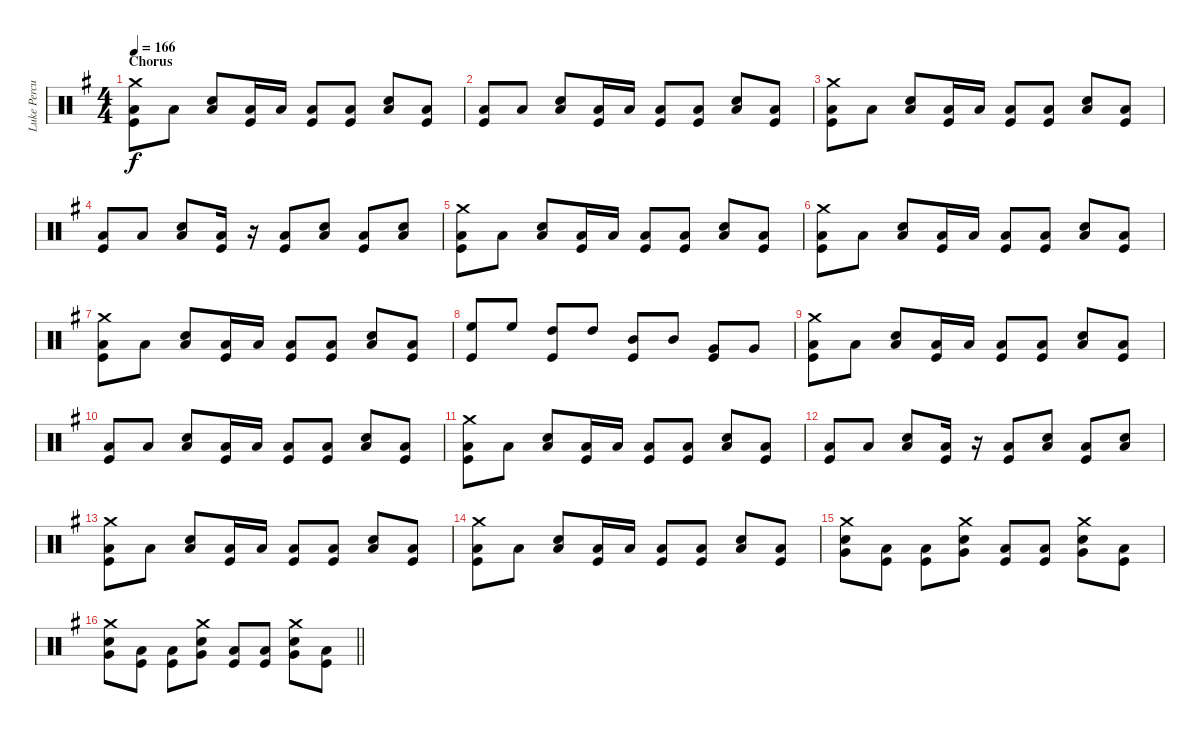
\track ("Luke Percussion" "Luke Percu") {instrument percussion}
\staff {score}
\articulation defaults
\ts (4 4)
\section ("" "Chorus")
\tempo 166
\clef neutral
\ks eminor
("Crash medium (hit)" "Low Floor Tom (hit)" "Kick (hit)").8{dy f} "Low Floor Tom (hit)".8 ("Snare (hit) 2" "Low Floor Tom (hit)").8 ("Low Floor Tom (hit)" "Kick (hit)").16 "Low Floor Tom (hit)".16 ("Low Floor Tom (hit)" "Kick (hit)").8 ("Low Floor Tom (hit)" "Kick (hit)").8 ("Snare (hit) 2" "Low Floor Tom (hit)").8 ("Low Floor Tom (hit)" "Kick (hit)").8 |
("Low Floor Tom (hit)" "Kick (hit)").8 "Low Floor Tom (hit)".8 ("Snare (hit) 2" "Low Floor Tom (hit)").8 ("Low Floor Tom (hit)" "Kick (hit)").16 "Low Floor Tom (hit)".16 ("Low Floor Tom (hit)" "Kick (hit)").8 ("Low Floor Tom (hit)" "Kick (hit)").8 ("Snare (hit) 2" "Low Floor Tom (hit)").8 ("Low Floor Tom (hit)" "Kick (hit)").8 |
("Crash medium (hit)" "Low Floor Tom (hit)" "Kick (hit)").8 "Low Floor Tom (hit)".8 ("Snare (hit) 2" "Low Floor Tom (hit)").8 ("Low Floor Tom (hit)" "Kick (hit)").16 "Low Floor Tom (hit)".16 ("Low Floor Tom (hit)" "Kick (hit)").8 ("Low Floor Tom (hit)" "Kick (hit)").8 ("Snare (hit) 2" "Low Floor Tom (hit)").8 ("Low Floor Tom (hit)" "Kick (hit)").8 |
("Low Floor Tom (hit)" "Kick (hit)").8 "Low Floor Tom (hit)".8 ("Snare (hit) 2" "Low Floor Tom (hit)").8 ("Low Floor Tom (hit)" "Kick (hit)").16 r.16 ("Low Floor Tom (hit)" "Kick (hit)").8 ("Snare (hit) 2" "Low Floor Tom (hit)").8 ("Low Floor Tom (hit)" "Kick (hit)").8 ("Snare (hit) 2" "Low Floor Tom (hit)").8 |
("Crash medium (hit)" "Low Floor Tom (hit)" "Kick (hit)").8 "Low Floor Tom (hit)".8 ("Snare (hit) 2" "Low Floor Tom (hit)").8 ("Low Floor Tom (hit)" "Kick (hit)").16 "Low Floor Tom (hit)".16 ("Low Floor Tom (hit)" "Kick (hit)").8 ("Low Floor Tom (hit)" "Kick (hit)").8 ("Snare (hit) 2" "Low Floor Tom (hit)").8 ("Low Floor Tom (hit)" "Kick (hit)").8 |
("Crash medium (hit)" "Low Floor Tom (hit)" "Kick (hit)").8 "Low Floor Tom (hit)".8 ("Snare (hit) 2" "Low Floor Tom (hit)").8 ("Low Floor Tom (hit)" "Kick (hit)").16 "Low Floor Tom (hit)".16 ("Low Floor Tom (hit)" "Kick (hit)").8 ("Low Floor Tom (hit)" "Kick (hit)").8 ("Snare (hit) 2" "Low Floor Tom (hit)").8 ("Low Floor Tom (hit)" "Kick (hit)").8 |
("Crash medium (hit)" "Low Floor Tom (hit)" "Kick (hit)").8 "Low Floor Tom (hit)".8 ("Snare (hit) 2" "Low Floor Tom (hit)").8 ("Low Floor Tom (hit)" "Kick (hit)").16 "Low Floor Tom (hit)".16 ("Low Floor Tom (hit)" "Kick (hit)").8 ("Low Floor Tom (hit)" "Kick (hit)").8 ("Snare (hit) 2" "Low Floor Tom (hit)").8 ("Low Floor Tom (hit)" "Kick (hit)").8 |
("High Floor Tom (hit)" "Kick (hit)").8 "High Floor Tom (hit)".8 ("High Tom (hit)" "Kick (hit)").8 "High Tom (hit)".8 ("Mid Tom (hit)" "Kick (hit)").8 "Mid Tom (hit)".8 ("Very Low Tom (hit)" "Kick (hit)").8 "Very Low Tom (hit)".8 |
("Crash medium (hit)" "Low Floor Tom (hit)" "Kick (hit)").8 "Low Floor Tom (hit)".8 ("Snare (hit) 2" "Low Floor Tom (hit)").8 ("Low Floor Tom (hit)" "Kick (hit)").16 "Low Floor Tom (hit)".16 ("Low Floor Tom (hit)" "Kick (hit)").8 ("Low Floor Tom (hit)" "Kick (hit)").8 ("Snare (hit) 2" "Low Floor Tom (hit)").8 ("Low Floor Tom (hit)" "Kick (hit)").8 |
("Low Floor Tom (hit)" "Kick (hit)").8 "Low Floor Tom (hit)".8 ("Snare (hit) 2" "Low Floor Tom (hit)").8 ("Low Floor Tom (hit)" "Kick (hit)").16 "Low Floor Tom (hit)".16 ("Low Floor Tom (hit)" "Kick (hit)").8 ("Low Floor Tom (hit)" "Kick (hit)").8 ("Snare (hit) 2" "Low Floor Tom (hit)").8 ("Low Floor Tom (hit)" "Kick (hit)").8 |
("Crash medium (hit)" "Low Floor Tom (hit)" "Kick (hit)").8 "Low Floor Tom (hit)".8 ("Snare (hit) 2" "Low Floor Tom (hit)").8 ("Low Floor Tom (hit)" "Kick (hit)").16 "Low Floor Tom (hit)".16 ("Low Floor Tom (hit)" "Kick (hit)").8 ("Low Floor Tom (hit)" "Kick (hit)").8 ("Snare (hit) 2" "Low Floor Tom (hit)").8 ("Low Floor Tom (hit)" "Kick (hit)").8 |
("Low Floor Tom (hit)" "Kick (hit)").8 "Low Floor Tom (hit)".8 ("Snare (hit) 2" "Low Floor Tom (hit)").8 ("Low Floor Tom (hit)" "Kick (hit)").16 r.16 ("Low Floor Tom (hit)" "Kick (hit)").8 ("Snare (hit) 2" "Low Floor Tom (hit)").8 ("Low Floor Tom (hit)" "Kick (hit)").8 ("Snare (hit) 2" "Low Floor Tom (hit)").8 |
("Crash medium (hit)" "Low Floor Tom (hit)" "Kick (hit)").8 "Low Floor Tom (hit)".8 ("Snare (hit) 2" "Low Floor Tom (hit)").8 ("Low Floor Tom (hit)" "Kick (hit)").16 "Low Floor Tom (hit)".16 ("Low Floor Tom (hit)" "Kick (hit)").8 ("Low Floor Tom (hit)" "Kick (hit)").8 ("Snare (hit) 2" "Low Floor Tom (hit)").8 ("Low Floor Tom (hit)" "Kick (hit)").8 |
("Crash medium (hit)" "Low Floor Tom (hit)" "Kick (hit)").8 "Low Floor Tom (hit)".8 ("Snare (hit) 2" "Low Floor Tom (hit)").8 ("Low Floor Tom (hit)" "Kick (hit)").16 "Low Floor Tom (hit)".16 ("Low Floor Tom (hit)" "Kick (hit)").8 ("Low Floor Tom (hit)" "Kick (hit)").8 ("Snare (hit) 2" "Low Floor Tom (hit)").8 ("Low Floor Tom (hit)" "Kick (hit)").8 |
("Crash medium (hit)" "Very Low Tom (hit)" "Snare (hit) 2").8 ("Low Floor Tom (hit)" "Kick (hit)").8 ("Low Floor Tom (hit)" "Kick (hit)").8 ("Crash medium (hit)" "Very Low Tom (hit)" "Snare (hit) 2").8 ("Low Floor Tom (hit)" "Kick (hit)").8 ("Low Floor Tom (hit)" "Kick (hit)").8 ("Crash medium (hit)" "Very Low Tom (hit)" "Snare (hit) 2").8 ("Low Floor Tom (hit)" "Kick (hit)").8 |
\barLineRight lightlight
("Crash medium (hit)" "Very Low Tom (hit)" "Snare (hit) 2").8 ("Low Floor Tom (hit)" "Kick (hit)").8 ("Low Floor Tom (hit)" "Kick (hit)").8 ("Crash medium (hit)" "Very Low Tom (hit)" "Snare (hit) 2").8 ("Low Floor Tom (hit)" "Kick (hit)").8 ("Low Floor Tom (hit)" "Kick (hit)").8 ("Crash medium (hit)" "Very Low Tom (hit)" "Snare (hit) 2").8 ("Low Floor Tom (hit)" "Kick (hit)").8
